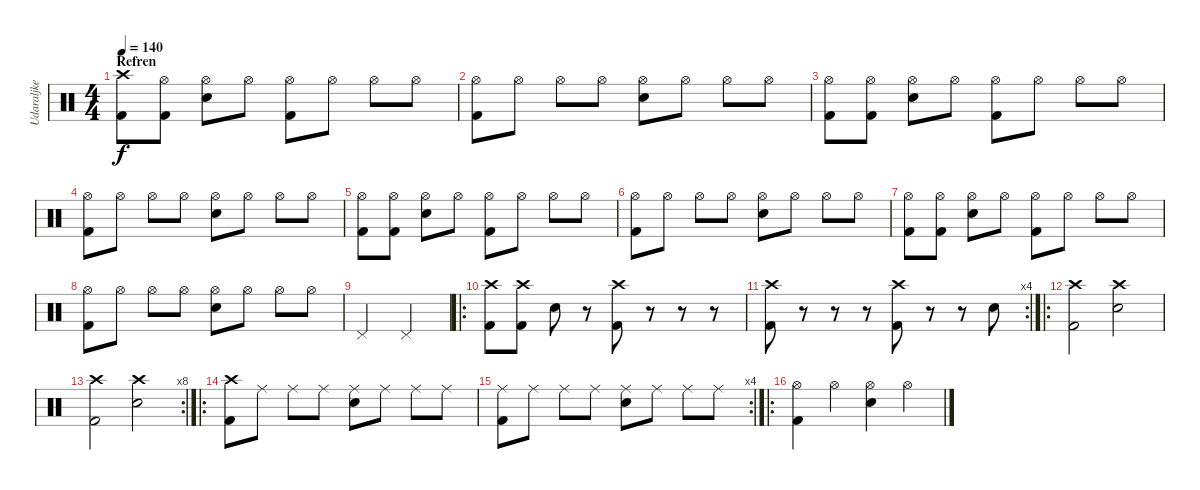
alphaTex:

\track ("Udaraljke" "Udaraljke") {instrument percussion}
\staff {score}
\articulation defaults
\ts (4 4)
\section ("" "Refren")
\tempo 140
\clef neutral
\ks c
("Crash high (hit)" "Kick (hit) 2").8{dy f} ("Hi-Hat (open)" "Kick (hit) 2").8 ("Hi-Hat (open)" "Electric Snare (hit)").8 "Hi-Hat (open)".8 ("Hi-Hat (open)" "Kick (hit) 2").8 "Hi-Hat (open)".8 "Hi-Hat (open)".8 "Hi-Hat (open)".8 |
("Hi-Hat (open)" "Kick (hit) 2").8 "Hi-Hat (open)".8 "Hi-Hat (open)".8 "Hi-Hat (open)".8 ("Hi-Hat (open)" "Electric Snare (hit)").8 "Hi-Hat (open)".8 "Hi-Hat (open)".8 "Hi-Hat (open)".8 |
("Hi-Hat (open)" "Kick (hit) 2").8 ("Hi-Hat (open)" "Kick (hit) 2").8 ("Hi-Hat (open)" "Electric Snare (hit)").8 "Hi-Hat (open)".8 ("Hi-Hat (open)" "Kick (hit) 2").8 "Hi-Hat (open)".8 "Hi-Hat (open)".8 "Hi-Hat (open)".8 |
("Hi-Hat (open)" "Kick (hit) 2").8 "Hi-Hat (open)".8 "Hi-Hat (open)".8 "Hi-Hat (open)".8 ("Hi-Hat (open)" "Electric Snare (hit)").8 "Hi-Hat (open)".8 "Hi-Hat (open)".8 "Hi-Hat (open)".8 |
("Hi-Hat (open)" "Kick (hit) 2").8 ("Hi-Hat (open)" "Kick (hit) 2").8 ("Hi-Hat (open)" "Electric Snare (hit)").8 "Hi-Hat (open)".8 ("Hi-Hat (open)" "Kick (hit) 2").8 "Hi-Hat (open)".8 "Hi-Hat (open)".8 "Hi-Hat (open)".8 |
("Hi-Hat (open)" "Kick (hit) 2").8 "Hi-Hat (open)".8 "Hi-Hat (open)".8 "Hi-Hat (open)".8 ("Hi-Hat (open)" "Electric Snare (hit)").8 "Hi-Hat (open)".8 "Hi-Hat (open)".8 "Hi-Hat (open)".8 |
("Hi-Hat (open)" "Kick (hit) 2").8 ("Hi-Hat (open)" "Kick (hit) 2").8 ("Hi-Hat (open)" "Electric Snare (hit)").8 "Hi-Hat (open)".8 ("Hi-Hat (open)" "Kick (hit) 2").8 "Hi-Hat (open)".8 "Hi-Hat (open)".8 "Hi-Hat (open)".8 |
("Hi-Hat (open)" "Kick (hit) 2").8 "Hi-Hat (open)".8 "Hi-Hat (open)".8 "Hi-Hat (open)".8 ("Hi-Hat (open)" "Electric Snare (hit)").8 "Hi-Hat (open)".8 "Hi-Hat (open)".8 "Hi-Hat (open)".8 |
"Pedal Hi-Hat (hit)".2 "Pedal Hi-Hat (hit)".2 |
\ro
("Crash high (hit)" "Kick (hit) 2").8 ("Crash high (hit)" "Kick (hit) 2").8 "Electric Snare (hit)".8 r.8 ("Crash high (hit)" "Kick (hit) 2").8 r.8 r.8 r.8 |
\rc 4
("Crash high (hit)" "Kick (hit) 2").8 r.8 r.8 r.8 ("Crash high (hit)" "Kick (hit) 2").8 r.8 r.8 "Electric Snare (hit)".8 |
\ro
("Crash high (hit)" "Kick (hit) 2").2 ("Crash high (hit)" "Electric Snare (hit)").2 |
\rc 8
("Crash high (hit)" "Kick (hit) 2").2 ("Crash high (hit)" "Electric Snare (hit)").2 |
\ro
("Crash high (hit)" "Kick (hit) 2").8 "Ride (middle)".8 "Ride (middle)".8 "Ride (middle)".8 ("Ride (middle)" "Electric Snare (hit)").8 "Ride (middle)".8 "Ride (middle)".8 "Ride (middle)".8 |
\rc 4
("Ride (middle)" "Kick (hit) 2").8 "Ride (middle)".8 "Ride (middle)".8 "Ride (middle)".8 ("Ride (middle)" "Electric Snare (hit)").8 "Ride (middle)".8 "Ride (middle)".8 "Ride (middle)".8 |
\ro
("Hi-Hat (open)" "Kick (hit) 2").4 "Hi-Hat (open)".4 ("Hi-Hat (open)" "Electric Snare (hit)").4 "Hi-Hat (open)".4
